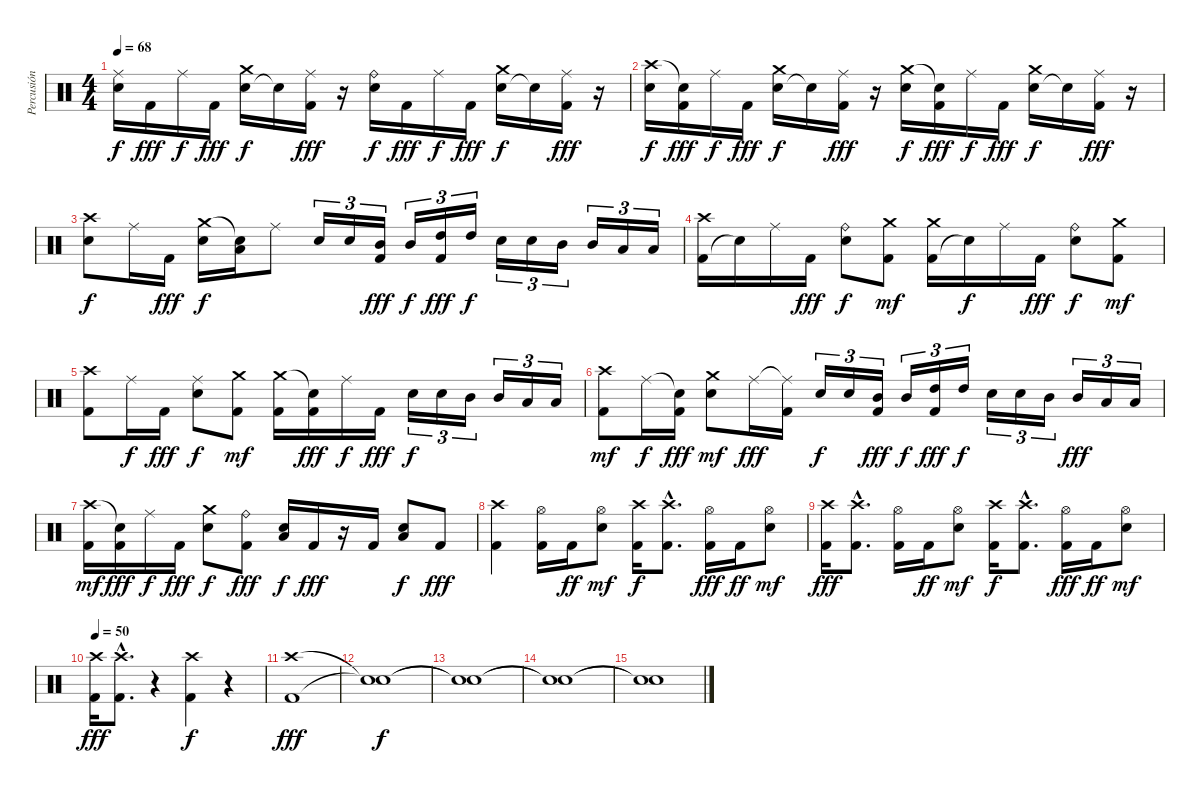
\track ("Percusión" "Percusión") {instrument percussion}
\staff {score}
\articulation defaults
\ts (4 4)
\tempo 68
\clef neutral
\ks c
("Ride (middle)" "Snare (hit) 2").16{dy f} "Kick (hit) 2".16{dy fff} "Ride (middle)".16{dy f} "Kick (hit) 2".16{dy fff} ("Snare (hit) 2" "Crash medium (hit)").16{dy f} "Snare (hit)"{t}.16 ("Ride (middle)" "Kick (hit) 2").16{dy fff} r.16 ("Ride (bell)" "Snare (hit) 2").16{dy f} "Kick (hit) 2".16{dy fff} "Ride (middle)".16{dy f} "Kick (hit) 2".16{dy fff} ("Snare (hit) 2" "Crash medium (hit)").16{dy f} "Snare (hit)"{t}.16 ("Ride (middle)" "Kick (hit) 2").16{dy fff} r.16 |
("Snare (hit) 2" "Crash high (hit)").16{dy f} ("Kick (hit) 2" "Snare (hit)"{t}).16{dy fff} "Ride (middle)".16{dy f} "Kick (hit) 2".16{dy fff} ("Snare (hit) 2" "Crash medium (hit)").16{dy f} "Snare (hit)"{t}.16 ("Ride (middle)" "Kick (hit) 2").16{dy fff} r.16 ("Snare (hit) 2" "Crash medium (hit)").16{dy f} ("Kick (hit) 2" "Snare (hit)"{t}).16{dy fff} "Ride (middle)".16{dy f} "Kick (hit) 2".16{dy fff} ("Snare (hit) 2" "Crash medium (hit)").16{dy f} "Snare (hit)"{t}.16 ("Ride (middle)" "Kick (hit) 2").16{dy fff} r.16 |
("Snare (hit) 2" "Crash high (hit)").8{dy f} "Ride (middle)".16 "Kick (hit) 2".16{dy fff} ("Snare (hit) 2" "Crash medium (hit)").16{dy f} ("Low Tom (hit)" "Snare (hit)"{t}).16 "Ride (middle)".8 "Snare (hit) 2".16{tu (3 2)} "Snare (hit) 2".16{tu (3 2)} ("Mid Tom (hit)" "Kick (hit) 2").16{tu (3 2) dy fff} "Mid Tom (hit)".16{tu (3 2) dy f} ("High Tom (hit)" "Kick (hit) 2").16{tu (3 2) dy fff} "High Tom (hit)".16{tu (3 2) dy f} "Snare (hit) 2".16{tu (3 2)} "Snare (hit) 2".16{tu (3 2)} "Mid Tom (hit)".16{tu (3 2)} "Mid Tom (hit)".16{tu (3 2)} "Low Tom (hit)".16{tu (3 2)} "Low Tom (hit)".16{tu (3 2)} |
("Kick (hit) 2" "Crash high (hit)").16 "Snare (hit)"{t}.16 "Ride (middle)".16 "Kick (hit) 2".16{dy fff} ("Ride (bell)" "Snare (hit) 2").8{dy f} ("Kick (hit) 2" "Crash medium (hit)").8{dy mf} ("Kick (hit) 2" "Crash medium (hit)").16 "Snare (hit)"{t}.16{dy f} "Ride (middle)".16 "Kick (hit) 2".16{dy fff} ("Ride (bell)" "Snare (hit) 2").8{dy f} ("Kick (hit) 2" "Crash medium (hit)").8{dy mf} |
("Kick (hit) 2" "Crash high (hit)").8 "Ride (middle)".16{dy f} "Kick (hit) 2".16{dy fff} ("Ride (middle)" "Snare (hit) 2").8{dy f} ("Kick (hit) 2" "Crash medium (hit)").8{dy mf} ("Kick (hit) 2" "Crash medium (hit)").16 ("Kick (hit) 2" "Snare (hit)"{t}).16{dy fff} "Ride (middle)".16{dy f} "Kick (hit) 2".16{dy fff} "Snare (hit) 2".16{tu (3 2) dy f} "Snare (hit) 2".16{tu (3 2)} "Mid Tom (hit)".16{tu (3 2)} "Mid Tom (hit)".16{tu (3 2)} "Low Tom (hit)".16{tu (3 2)} "Low Tom (hit)".16{tu (3 2)} |
("Kick (hit) 2" "Crash high (hit)").8{dy mf} "Ride (middle)".16{dy f} ("Snare (hit)"{t} "Kick (hit) 2").16{dy fff} ("Snare (hit) 2" "Crash medium (hit)").8{dy mf} "Ride (middle)".16{dy fff} ("Ride (middle)"{t} "Kick (hit) 2").16 "Snare (hit) 2".16{tu (3 2) dy f} "Snare (hit) 2".16{tu (3 2)} ("Mid Tom (hit)" "Kick (hit) 2").16{tu (3 2) dy fff} "Mid Tom (hit)".16{tu (3 2) dy f} ("High Tom (hit)" "Kick (hit) 2").16{tu (3 2) dy fff} "High Tom (hit)".16{tu (3 2) dy f} "Snare (hit) 2".16{tu (3 2)} "Snare (hit) 2".16{tu (3 2)} "Mid Tom (hit)".16{tu (3 2)} "Mid Tom (hit)".16{tu (3 2) dy fff} "Low Tom (hit)".16{tu (3 2)} "Low Tom (hit)".16{tu (3 2)} |
("Kick (hit) 2" "Crash high (hit)").16{dy mf} ("Kick (hit) 2" "Snare (hit)"{t}).16{dy fff} "Ride (middle)".16{dy f} "Kick (hit) 2".16{dy fff} ("Snare (hit) 2" "Crash medium (hit)").8{dy f} ("Ride (bell)" "Kick (hit) 2").8{dy fff} ("Snare (hit) 2" "Low Tom (hit)").16{dy f} "Kick (hit) 2".16{dy fff} r.16 "Kick (hit) 2".16 ("Snare (hit) 2" "Low Tom (hit)").8{dy f} "Kick (hit) 2".8{dy fff} |
("Kick (hit) 2" "Crash high (hit)").4 ("Hi-Hat (open)" "Kick (hit) 2").16 "Kick (hit) 2".16{dy ff} ("Hi-Hat (open)" "Snare (hit) 2").8{dy mf} ("Kick (hit) 2" "Crash high (hit)").16{dy f} ("Kick (hit) 2"{hac} "Crash high (hit)"{hac}).8{d} ("Hi-Hat (open)" "Kick (hit) 2").16{dy fff} "Kick (hit) 2".16{dy ff} ("Hi-Hat (open)" "Snare (hit) 2").8{dy mf} |
("Kick (hit) 2" "Crash high (hit)").16{dy fff} ("Kick (hit) 2"{hac} "Crash high (hit)"{hac}).8{d} ("Hi-Hat (open)" "Kick (hit) 2").16 "Kick (hit) 2".16{dy ff} ("Hi-Hat (open)" "Snare (hit) 2").8{dy mf} ("Kick (hit) 2" "Crash high (hit)").16{dy f} ("Kick (hit) 2"{hac} "Crash high (hit)"{hac}).8{d} ("Hi-Hat (open)" "Kick (hit) 2").16{dy fff} "Kick (hit) 2".16{dy ff} ("Hi-Hat (open)" "Snare (hit) 2").8{dy mf} |
\tempo 50
("Kick (hit) 2" "Crash high (hit)").16{dy fff} ("Kick (hit) 2"{hac} "Crash high (hit)"{hac}).8{d} r.4 ("Kick (hit) 2" "Crash high (hit)").4{dy f} r.4 |
("Kick (hit) 2" "Crash high (hit)").1{dy fff} |
("Snare (hit)"{t} "Snare (hit)"{t}).1{dy f} |
("Snare (hit)"{t} "Snare (hit)"{t}).1 |
("Snare (hit)"{t} "Snare (hit)"{t}).1 |
("Snare (hit)"{t} "Snare (hit)"{t}).1
